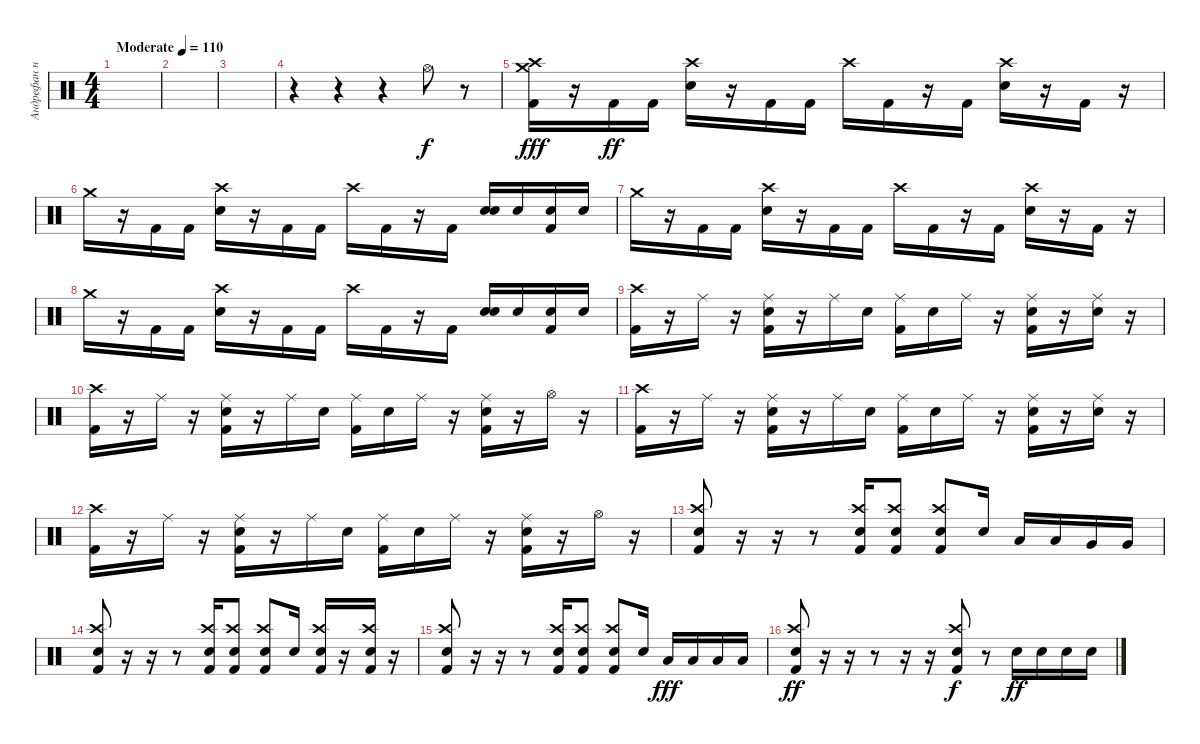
\track ("Андрефан на драмах" "Андрефан н") {instrument percussion}
\staff {score}
\articulation defaults
\ts (4 4)
\tempo (110 "Moderate")
\clef neutral
\ks c
|
|
|
r.4 r.4 r.4 "Hi-Hat (open)".8 r.8 |
("Crash medium (hit)" "Kick (hit) 2" "Crash high (hit)").16{dy fff} r.16 "Kick (hit) 2".16{dy ff} "Kick (hit) 2".16 ("Electric Snare (hit)" "Crash high (hit)").16 r.16 "Kick (hit) 2".16 "Kick (hit) 2".16 "Crash high (hit)".16 "Kick (hit) 2".16 r.16 "Kick (hit) 2".16 ("Electric Snare (hit)" "Crash high (hit)").16 r.16 "Kick (hit) 2".16 r.16 |
"Crash medium (hit)".16 r.16 "Kick (hit) 2".16 "Kick (hit) 2".16 ("Electric Snare (hit)" "Crash high (hit)").16 r.16 "Kick (hit) 2".16 "Kick (hit) 2".16 "Crash high (hit)".16 "Kick (hit) 2".16 r.16 "Kick (hit) 2".16 ("Electric Snare (hit)" "Electric Snare (hit)").16 "Electric Snare (hit)".16 ("Electric Snare (hit)" "Kick (hit) 2").16 "Electric Snare (hit)".16 |
"Crash medium (hit)".16 r.16 "Kick (hit) 2".16 "Kick (hit) 2".16 ("Electric Snare (hit)" "Crash high (hit)").16 r.16 "Kick (hit) 2".16 "Kick (hit) 2".16 "Crash high (hit)".16 "Kick (hit) 2".16 r.16 "Kick (hit) 2".16 ("Electric Snare (hit)" "Crash high (hit)").16 r.16 "Kick (hit) 2".16 r.16 |
"Crash medium (hit)".16 r.16 "Kick (hit) 2".16 "Kick (hit) 2".16 ("Electric Snare (hit)" "Crash high (hit)").16 r.16 "Kick (hit) 2".16 "Kick (hit) 2".16 "Crash high (hit)".16 "Kick (hit) 2".16 r.16 "Kick (hit) 2".16 ("Electric Snare (hit)" "Electric Snare (hit)").16 "Electric Snare (hit)".16 ("Electric Snare (hit)" "Kick (hit) 2").16 "Electric Snare (hit)".16 |
("Crash high (hit)" "Kick (hit) 2").16 r.16 "Ride (middle)".16 r.16 ("Ride (middle)" "Electric Snare (hit)" "Kick (hit) 2").16 r.16 "Ride (middle)".16 "Electric Snare (hit)".16 ("Ride (middle)" "Kick (hit) 2").16 "Electric Snare (hit)".16 "Ride (middle)".16 r.16 ("Ride (middle)" "Electric Snare (hit)" "Kick (hit) 2").16 r.16 ("Ride (middle)" "Electric Snare (hit)").16 r.16 |
("Crash high (hit)" "Kick (hit) 2").16 r.16 "Ride (middle)".16 r.16 ("Ride (middle)" "Electric Snare (hit)" "Kick (hit) 2").16 r.16 "Ride (middle)".16 "Electric Snare (hit)".16 ("Ride (middle)" "Kick (hit) 2").16 "Electric Snare (hit)".16 "Ride (middle)".16 r.16 ("Ride (middle)" "Electric Snare (hit)" "Kick (hit) 2").16 r.16 "Hi-Hat (open)".16 r.16 |
("Crash high (hit)" "Kick (hit) 2").16 r.16 "Ride (middle)".16 r.16 ("Ride (middle)" "Electric Snare (hit)" "Kick (hit) 2").16 r.16 "Ride (middle)".16 "Electric Snare (hit)".16 ("Ride (middle)" "Kick (hit) 2").16 "Electric Snare (hit)".16 "Ride (middle)".16 r.16 ("Ride (middle)" "Electric Snare (hit)" "Kick (hit) 2").16 r.16 ("Ride (middle)" "Electric Snare (hit)").16 r.16 |
("Crash high (hit)" "Kick (hit) 2").16 r.16 "Ride (middle)".16 r.16 ("Ride (middle)" "Electric Snare (hit)" "Kick (hit) 2").16 r.16 "Ride (middle)".16 "Electric Snare (hit)".16 ("Ride (middle)" "Kick (hit) 2").16 "Electric Snare (hit)".16 "Ride (middle)".16 r.16 ("Ride (middle)" "Electric Snare (hit)" "Kick (hit) 2").16 r.16 "Hi-Hat (open)".16 r.16 |
("Crash high (hit)" "Electric Snare (hit)" "Kick (hit) 2").8 r.16 r.16 r.8 ("Crash high (hit)" "Electric Snare (hit)" "Kick (hit) 2").16 ("Crash high (hit)" "Electric Snare (hit)" "Kick (hit) 2").8 ("Crash high (hit)" "Electric Snare (hit)" "Kick (hit) 2").8 "Electric Snare (hit)".16 "Low Tom (hit)".16 "Low Tom (hit)".16 "Very Low Tom (hit)".16 "Very Low Tom (hit)".16 |
("Crash high (hit)" "Electric Snare (hit)" "Kick (hit) 2").8 r.16 r.16 r.8 ("Crash high (hit)" "Electric Snare (hit)" "Kick (hit) 2").16 ("Crash high (hit)" "Electric Snare (hit)" "Kick (hit) 2").8 ("Crash high (hit)" "Electric Snare (hit)" "Kick (hit) 2").8 "Electric Snare (hit)".16 ("Kick (hit) 2" "Crash high (hit)" "Electric Snare (hit)").16 r.16 ("Kick (hit) 2" "Crash high (hit)" "Electric Snare (hit)").16 r.16 |
("Crash high (hit)" "Electric Snare (hit)" "Kick (hit) 2").8 r.16 r.16 r.8 ("Crash high (hit)" "Electric Snare (hit)" "Kick (hit) 2").16 ("Crash high (hit)" "Electric Snare (hit)" "Kick (hit) 2").8 ("Crash high (hit)" "Electric Snare (hit)" "Kick (hit) 2").8 "Electric Snare (hit)".16 "Low Floor Tom (hit)".16{dy fff} "Low Floor Tom (hit)".16 "Low Tom (hit)".16 "Low Tom (hit)".16 |
("Crash high (hit)" "Electric Snare (hit)" "Kick (hit) 2").8{dy ff} r.16 r.16 r.8 r.16 r.16 ("Crash high (hit)" "Electric Snare (hit)" "Kick (hit) 2").8{dy f} r.8 "Electric Snare (hit)".16{dy ff} "Electric Snare (hit)".16 "Electric Snare (hit)".16 "Electric Snare (hit)".16
